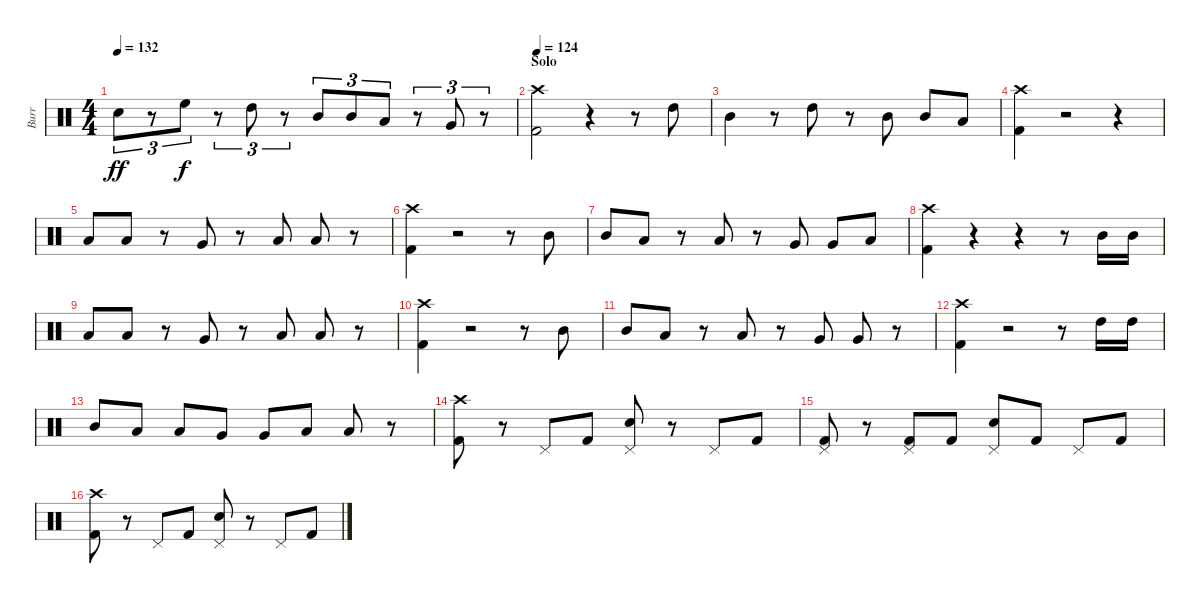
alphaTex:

\track ("Burr" "Burr") {instrument percussion}
\staff {score}
\articulation defaults
\ts (4 4)
\tempo 132
\clef neutral
\ks c "Snare (hit) 2".8{tu (3 2) dy ff}
r.8{tu (3 2)} "High Floor Tom (hit)".8{tu (3 2) dy f} r.8{tu (3 2)} "High Tom (hit)".8{tu (3 2)} r.8{tu (3 2)} "Mid Tom (hit)".8{tu (3 2)} "Mid Tom (hit)".8{tu (3 2)} "Low Tom (hit)".8{tu (3 2)} r.8{tu (3 2)} "Very Low Tom (hit)".8{tu (3 2)} r.8{tu (3 2)} |
\section ("" "Solo")
\tempo 124
("Crash high (hit)" "Kick (hit) 2").2 r.4 r.8 "High Tom (hit)".8 |
"Mid Tom (hit)".4 r.8 "High Tom (hit)".8 r.8 "Mid Tom (hit)".8 "Mid Tom (hit)".8 "Low Tom (hit)".8 |
("Crash high (hit)" "Kick (hit) 2").4 r.2 r.4 |
"Low Tom (hit)".8 "Low Tom (hit)".8 r.8 "Very Low Tom (hit)".8 r.8 "Low Floor Tom (hit)".8 "Low Floor Tom (hit)".8 r.8 |
("Crash high (hit)" "Kick (hit) 2").4 r.2 r.8 "Mid Tom (hit)".8 |
"Mid Tom (hit)".8 "Low Tom (hit)".8 r.8 "Low Tom (hit)".8 r.8 "Very Low Tom (hit)".8 "Very Low Tom (hit)".8 "Low Floor Tom (hit)".8 |
("Crash high (hit)" "Kick (hit) 2").4 r.4 r.4 r.8 "Mid Tom (hit)".16 "Mid Tom (hit)".16 |
"Low Tom (hit)".8 "Low Tom (hit)".8 r.8 "Very Low Tom (hit)".8 r.8 "Low Floor Tom (hit)".8 "Low Floor Tom (hit)".8 r.8 |
("Crash high (hit)" "Kick (hit) 2").4 r.2 r.8 "Mid Tom (hit)".8 |
"Mid Tom (hit)".8 "Low Tom (hit)".8 r.8 "Low Tom (hit)".8 r.8 "Very Low Tom (hit)".8 "Very Low Tom (hit)".8 r.8 |
("Crash high (hit)" "Kick (hit) 2").4 r.2 r.8 "High Tom (hit)".16 "High Tom (hit)".16 |
"Mid Tom (hit)".8 "Low Tom (hit)".8 "Low Tom (hit)".8 "Very Low Tom (hit)".8 "Very Low Tom (hit)".8 "Low Floor Tom (hit)".8 "Low Floor Tom (hit)".8 r.8 |
("Crash high (hit)" "Kick (hit) 2").8 r.8 "Pedal Hi-Hat (hit)".8 "Kick (hit) 2".8 ("Pedal Hi-Hat (hit)" "Snare (hit) 2").8 r.8 "Pedal Hi-Hat (hit)".8 "Kick (hit) 2".8 |
("Pedal Hi-Hat (hit)" "Kick (hit) 2").8 r.8 ("Pedal Hi-Hat (hit)" "Kick (hit) 2").8 "Kick (hit) 2".8 ("Pedal Hi-Hat (hit)" "Snare (hit) 2").8 "Kick (hit) 2".8 "Pedal Hi-Hat (hit)".8 "Kick (hit) 2".8 |
("Crash high (hit)" "Kick (hit) 2").8 r.8 "Pedal Hi-Hat (hit)".8 "Kick (hit) 2".8 ("Pedal Hi-Hat (hit)" "Snare (hit) 2").8 r.8 "Pedal Hi-Hat (hit)".8 "Kick (hit) 2".8
